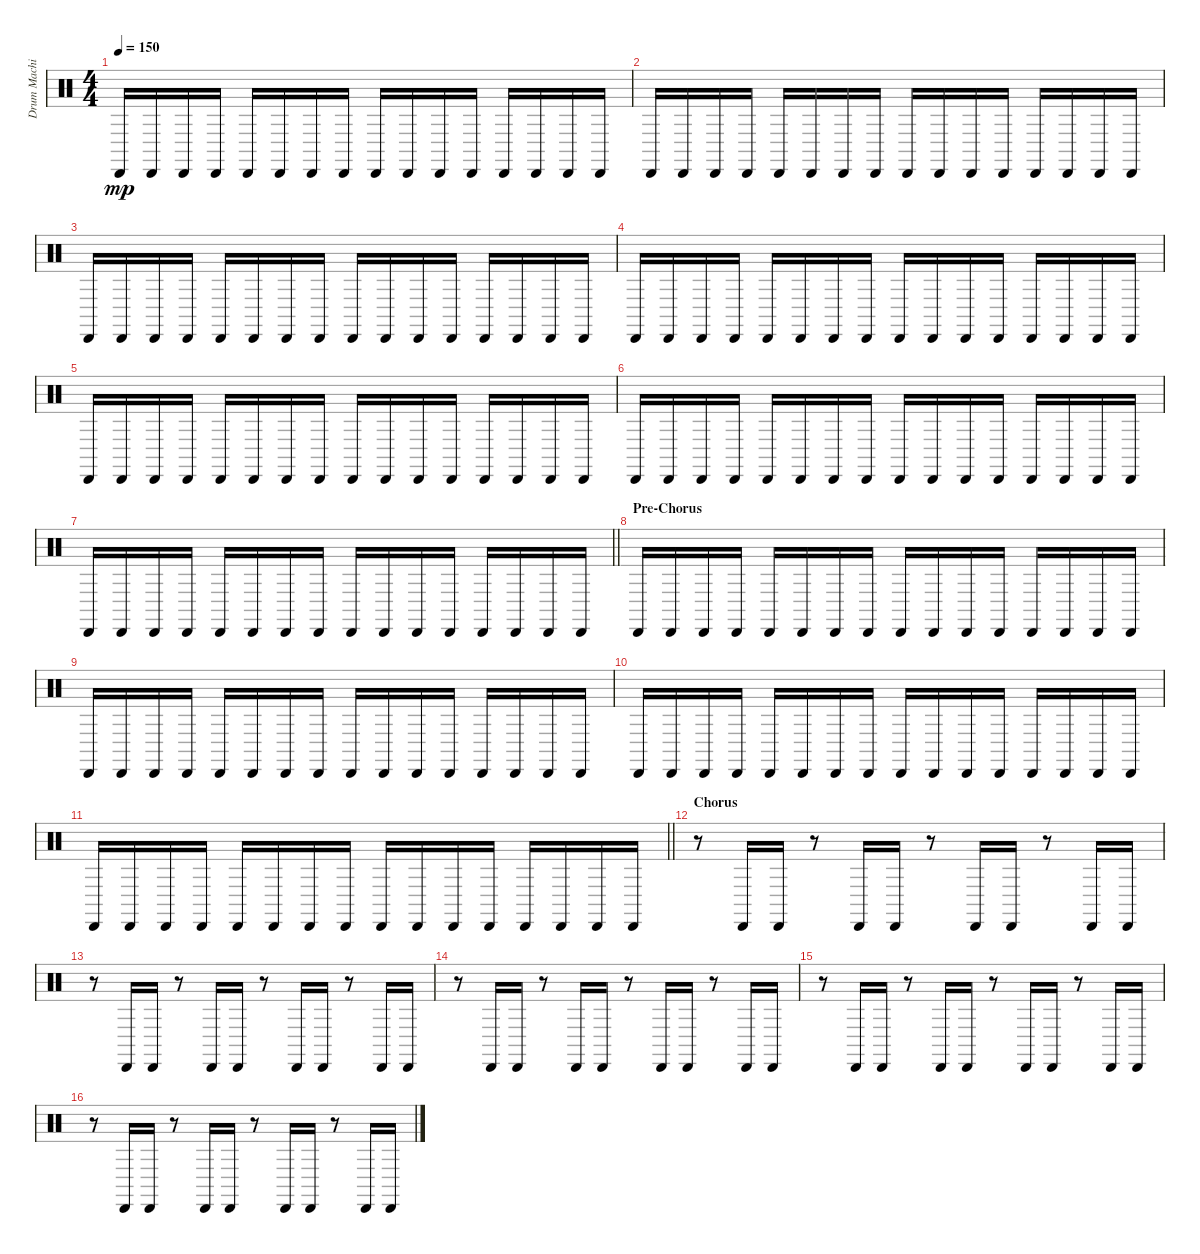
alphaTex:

\track ("Drum Machine" "Drum Machi") {instrument percussion}
\staff {score}
\articulation defaults
\ts (4 4)
\tempo 150
\clef neutral
\ks c "Cabasa (hit)".16{dy mp} "Cabasa (hit)".16 "Cabasa (hit)".16 "Cabasa (hit)".16 "Cabasa (hit)".16 "Cabasa (hit)".16 "Cabasa (hit)".16 "Cabasa (hit)".16 "Cabasa (hit)".16 "Cabasa (hit)".16 "Cabasa (hit)".16 "Cabasa (hit)".16 "Cabasa (hit)".16 "Cabasa (hit)".16 "Cabasa (hit)".16 "Cabasa (hit)".16
|
"Cabasa (hit)".16 "Cabasa (hit)".16 "Cabasa (hit)".16 "Cabasa (hit)".16 "Cabasa (hit)".16 "Cabasa (hit)".16 "Cabasa (hit)".16 "Cabasa (hit)".16 "Cabasa (hit)".16 "Cabasa (hit)".16 "Cabasa (hit)".16 "Cabasa (hit)".16 "Cabasa (hit)".16 "Cabasa (hit)".16 "Cabasa (hit)".16 "Cabasa (hit)".16 |
"Cabasa (hit)".16 "Cabasa (hit)".16 "Cabasa (hit)".16 "Cabasa (hit)".16 "Cabasa (hit)".16 "Cabasa (hit)".16 "Cabasa (hit)".16 "Cabasa (hit)".16 "Cabasa (hit)".16 "Cabasa (hit)".16 "Cabasa (hit)".16 "Cabasa (hit)".16 "Cabasa (hit)".16 "Cabasa (hit)".16 "Cabasa (hit)".16 "Cabasa (hit)".16 |
"Cabasa (hit)".16 "Cabasa (hit)".16 "Cabasa (hit)".16 "Cabasa (hit)".16 "Cabasa (hit)".16 "Cabasa (hit)".16 "Cabasa (hit)".16 "Cabasa (hit)".16 "Cabasa (hit)".16 "Cabasa (hit)".16 "Cabasa (hit)".16 "Cabasa (hit)".16 "Cabasa (hit)".16 "Cabasa (hit)".16 "Cabasa (hit)".16 "Cabasa (hit)".16 |
"Cabasa (hit)".16 "Cabasa (hit)".16 "Cabasa (hit)".16 "Cabasa (hit)".16 "Cabasa (hit)".16 "Cabasa (hit)".16 "Cabasa (hit)".16 "Cabasa (hit)".16 "Cabasa (hit)".16 "Cabasa (hit)".16 "Cabasa (hit)".16 "Cabasa (hit)".16 "Cabasa (hit)".16 "Cabasa (hit)".16 "Cabasa (hit)".16 "Cabasa (hit)".16 |
"Cabasa (hit)".16 "Cabasa (hit)".16 "Cabasa (hit)".16 "Cabasa (hit)".16 "Cabasa (hit)".16 "Cabasa (hit)".16 "Cabasa (hit)".16 "Cabasa (hit)".16 "Cabasa (hit)".16 "Cabasa (hit)".16 "Cabasa (hit)".16 "Cabasa (hit)".16 "Cabasa (hit)".16 "Cabasa (hit)".16 "Cabasa (hit)".16 "Cabasa (hit)".16 |
\barLineRight lightlight "Cabasa (hit)".16 "Cabasa (hit)".16 "Cabasa (hit)".16 "Cabasa (hit)".16 "Cabasa (hit)".16 "Cabasa (hit)".16 "Cabasa (hit)".16 "Cabasa (hit)".16 "Cabasa (hit)".16 "Cabasa (hit)".16 "Cabasa (hit)".16 "Cabasa (hit)".16 "Cabasa (hit)".16 "Cabasa (hit)".16 "Cabasa (hit)".16 "Cabasa (hit)".16
|
\section ("" "Pre-Chorus")
"Cabasa (hit)".16 "Cabasa (hit)".16 "Cabasa (hit)".16 "Cabasa (hit)".16 "Cabasa (hit)".16 "Cabasa (hit)".16 "Cabasa (hit)".16 "Cabasa (hit)".16 "Cabasa (hit)".16 "Cabasa (hit)".16 "Cabasa (hit)".16 "Cabasa (hit)".16 "Cabasa (hit)".16 "Cabasa (hit)".16 "Cabasa (hit)".16 "Cabasa (hit)".16 |
"Cabasa (hit)".16 "Cabasa (hit)".16 "Cabasa (hit)".16 "Cabasa (hit)".16 "Cabasa (hit)".16 "Cabasa (hit)".16 "Cabasa (hit)".16 "Cabasa (hit)".16 "Cabasa (hit)".16 "Cabasa (hit)".16 "Cabasa (hit)".16 "Cabasa (hit)".16 "Cabasa (hit)".16 "Cabasa (hit)".16 "Cabasa (hit)".16 "Cabasa (hit)".16 |
"Cabasa (hit)".16 "Cabasa (hit)".16 "Cabasa (hit)".16 "Cabasa (hit)".16 "Cabasa (hit)".16 "Cabasa (hit)".16 "Cabasa (hit)".16 "Cabasa (hit)".16 "Cabasa (hit)".16 "Cabasa (hit)".16 "Cabasa (hit)".16 "Cabasa (hit)".16 "Cabasa (hit)".16 "Cabasa (hit)".16 "Cabasa (hit)".16 "Cabasa (hit)".16 |
\barLineRight lightlight "Cabasa (hit)".16 "Cabasa (hit)".16 "Cabasa (hit)".16 "Cabasa (hit)".16 "Cabasa (hit)".16 "Cabasa (hit)".16 "Cabasa (hit)".16 "Cabasa (hit)".16 "Cabasa (hit)".16 "Cabasa (hit)".16 "Cabasa (hit)".16 "Cabasa (hit)".16 "Cabasa (hit)".16 "Cabasa (hit)".16 "Cabasa (hit)".16 "Cabasa (hit)".16
|
\section ("" "Chorus")
r.8 "Cabasa (hit)".16 "Cabasa (hit)".16 r.8 "Cabasa (hit)".16 "Cabasa (hit)".16 r.8 "Cabasa (hit)".16 "Cabasa (hit)".16 r.8 "Cabasa (hit)".16 "Cabasa (hit)".16 |
r.8 "Cabasa (hit)".16 "Cabasa (hit)".16 r.8 "Cabasa (hit)".16 "Cabasa (hit)".16 r.8 "Cabasa (hit)".16 "Cabasa (hit)".16 r.8 "Cabasa (hit)".16 "Cabasa (hit)".16 |
r.8 "Cabasa (hit)".16 "Cabasa (hit)".16 r.8 "Cabasa (hit)".16 "Cabasa (hit)".16 r.8 "Cabasa (hit)".16 "Cabasa (hit)".16 r.8 "Cabasa (hit)".16 "Cabasa (hit)".16 |
r.8 "Cabasa (hit)".16 "Cabasa (hit)".16 r.8 "Cabasa (hit)".16 "Cabasa (hit)".16 r.8 "Cabasa (hit)".16 "Cabasa (hit)".16 r.8 "Cabasa (hit)".16 "Cabasa (hit)".16 |
r.8 "Cabasa (hit)".16 "Cabasa (hit)".16 r.8 "Cabasa (hit)".16 "Cabasa (hit)".16 r.8 "Cabasa (hit)".16 "Cabasa (hit)".16 r.8 "Cabasa (hit)".16 "Cabasa (hit)".16
